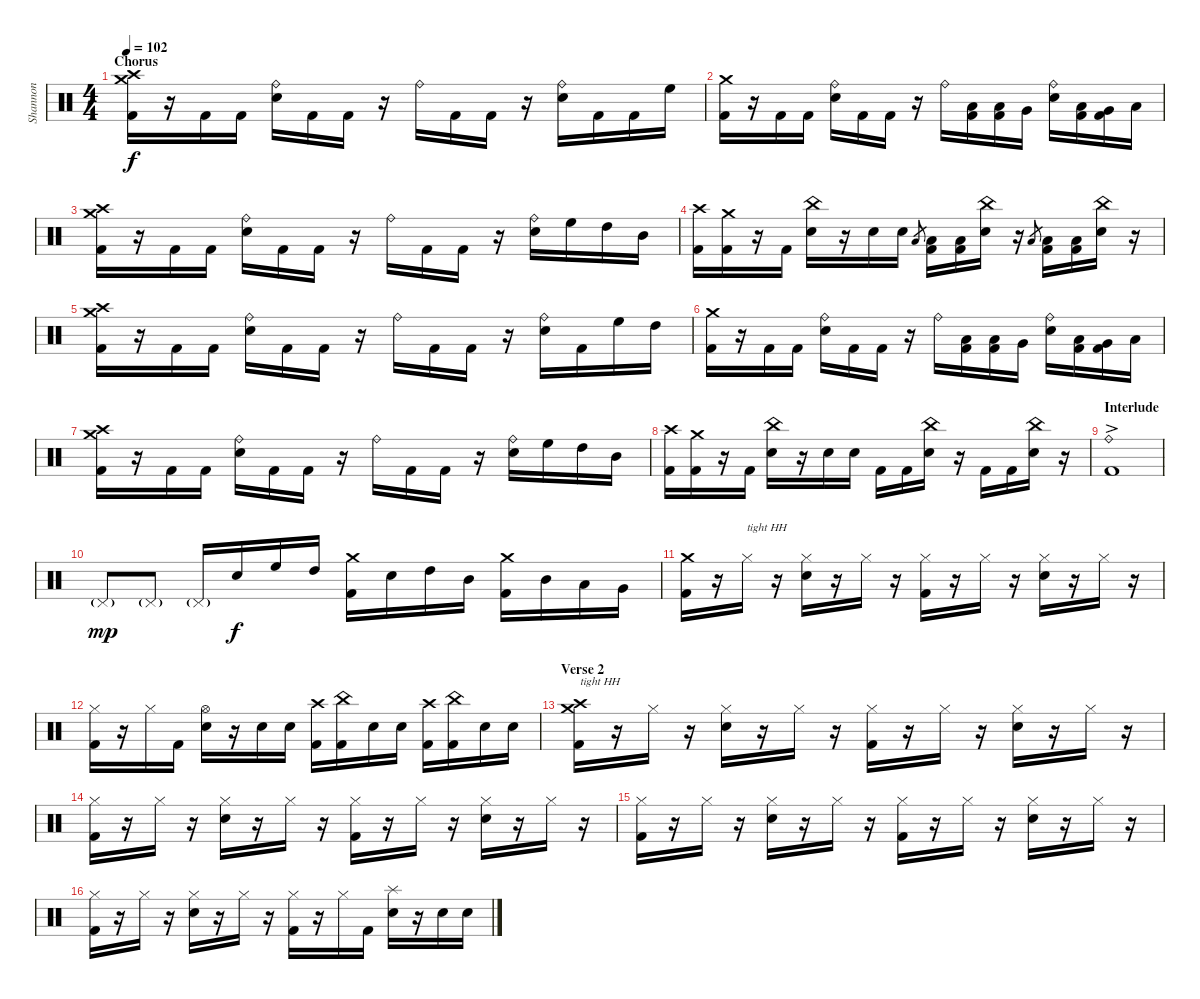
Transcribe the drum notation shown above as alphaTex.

\track ("Shannon" "Shannon") {instrument percussion}
\staff {score}
\articulation defaults
\ts (4 4)
\section ("" "Chorus")
\tempo 102
\clef neutral
\ks c
("Crash high (hit)" "Crash medium (hit)" "Kick (hit) 2").16{dy f} r.16 "Kick (hit) 2".16 "Kick (hit) 2".16 ("Ride (bell)" "Electric Snare (hit)").16 "Kick (hit) 2".16 "Kick (hit) 2".16 r.16 "Ride (bell)".16 "Kick (hit) 2".16 "Kick (hit) 2".16 r.16 ("Ride (bell)" "Electric Snare (hit)").16 "Kick (hit) 2".16 "Kick (hit) 2".16 "High Floor Tom (hit)".16 |
("Crash medium (hit)" "Kick (hit) 2").16 r.16 "Kick (hit) 2".16 "Kick (hit) 2".16 ("Ride (bell)" "Electric Snare (hit)").16 "Kick (hit) 2".16 "Kick (hit) 2".16 r.16 "Ride (bell)".16 ("Low Tom (hit)" "Kick (hit) 2").16 ("Low Tom (hit)" "Kick (hit) 2").16 "Very Low Tom (hit)".16 ("Ride (bell)" "Electric Snare (hit)").16 ("Low Tom (hit)" "Kick (hit) 2").16 ("Very Low Tom (hit)" "Kick (hit) 2").16 "Low Floor Tom (hit)".16 |
("Crash high (hit)" "Crash medium (hit)" "Kick (hit) 2").16 r.16 "Kick (hit) 2".16 "Kick (hit) 2".16 ("Ride (bell)" "Electric Snare (hit)").16 "Kick (hit) 2".16 "Kick (hit) 2".16 r.16 "Ride (bell)".16 "Kick (hit) 2".16 "Kick (hit) 2".16 r.16 ("Ride (bell)" "Electric Snare (hit)").16 "High Floor Tom (hit)".16 "High Tom (hit)".16 "Mid Tom (hit)".16 |
("Crash high (hit)" "Kick (hit) 2").16 ("Crash medium (hit)" "Kick (hit) 2").16 r.16 "Kick (hit) 2".16 ("China (hit)" "Electric Snare (hit)").16 r.16 "Electric Snare (hit)".16 "Electric Snare (hit)".16 "Low Tom (hit)".8{gr} ("Low Tom (hit)" "Kick (hit) 2").16 ("Low Tom (hit)" "Kick (hit) 2").16 ("China (hit)" "Electric Snare (hit)").16 r.16 "Low Tom (hit)".8{gr} ("Low Tom (hit)" "Kick (hit) 2").16 ("Low Tom (hit)" "Kick (hit) 2").16 ("China (hit)" "Electric Snare (hit)").16 r.16 |
("Crash high (hit)" "Crash medium (hit)" "Kick (hit) 2").16 r.16 "Kick (hit) 2".16 "Kick (hit) 2".16 ("Ride (bell)" "Electric Snare (hit)").16 "Kick (hit) 2".16 "Kick (hit) 2".16 r.16 "Ride (bell)".16 "Kick (hit) 2".16 "Kick (hit) 2".16 r.16 ("Ride (bell)" "Electric Snare (hit)").16 "Kick (hit) 2".16 "High Floor Tom (hit)".16 "High Tom (hit)".16 |
("Crash medium (hit)" "Kick (hit) 2").16 r.16 "Kick (hit) 2".16 "Kick (hit) 2".16 ("Ride (bell)" "Electric Snare (hit)").16 "Kick (hit) 2".16 "Kick (hit) 2".16 r.16 "Ride (bell)".16 ("Low Tom (hit)" "Kick (hit) 2").16 ("Low Tom (hit)" "Kick (hit) 2").16 "Very Low Tom (hit)".16 ("Ride (bell)" "Electric Snare (hit)").16 ("Low Tom (hit)" "Kick (hit) 2").16 ("Very Low Tom (hit)" "Kick (hit) 2").16 "Low Floor Tom (hit)".16 |
("Crash high (hit)" "Crash medium (hit)" "Kick (hit) 2").16 r.16 "Kick (hit) 2".16 "Kick (hit) 2".16 ("Ride (bell)" "Electric Snare (hit)").16 "Kick (hit) 2".16 "Kick (hit) 2".16 r.16 "Ride (bell)".16 "Kick (hit) 2".16 "Kick (hit) 2".16 r.16 ("Ride (bell)" "Electric Snare (hit)").16 "High Floor Tom (hit)".16 "High Tom (hit)".16 "Mid Tom (hit)".16 |
("Crash high (hit)" "Kick (hit) 2").16 ("Crash medium (hit)" "Kick (hit) 2").16 r.16 "Kick (hit) 2".16 ("China (hit)" "Electric Snare (hit)").16 r.16 "Electric Snare (hit)".16 "Electric Snare (hit)".16 "Kick (hit) 2".16 "Kick (hit) 2".16 ("China (hit)" "Electric Snare (hit)").16 r.16 "Kick (hit) 2".16 "Kick (hit) 2".16 ("China (hit)" "Electric Snare (hit)").16 r.16 |
\section ("" "Interlude")
("Ride (bell)"{ac} "Kick (hit) 2").1 |
"Pedal Hi-Hat (hit)"{g}.8{dy mp} "Pedal Hi-Hat (hit)"{g}.8 "Pedal Hi-Hat (hit)"{g}.16 "Electric Snare (hit)".16{dy f} "High Floor Tom (hit)".16 "High Tom (hit)".16 ("Crash medium (hit)" "Kick (hit) 2").16 "Electric Snare (hit)".16 "High Tom (hit)".16 "Mid Tom (hit)".16 ("Crash medium (hit)" "Kick (hit) 2").16 "Mid Tom (hit)".16 "Low Tom (hit)".16 "Very Low Tom (hit)".16 |
("Crash medium (hit)" "Kick (hit) 2").16 r.16 "Hi-Hat (closed)".16{txt "tight HH"} r.16 ("Hi-Hat (closed)" "Electric Snare (hit)").16 r.16 "Hi-Hat (closed)".16 r.16 ("Hi-Hat (closed)" "Kick (hit) 2").16 r.16 "Hi-Hat (closed)".16 r.16 ("Hi-Hat (closed)" "Electric Snare (hit)").16 r.16 "Hi-Hat (closed)".16 r.16 |
("Hi-Hat (closed)" "Kick (hit) 2").16 r.16 "Hi-Hat (closed)".16 "Kick (hit) 2".16 ("Hi-Hat (open)" "Electric Snare (hit)").16 r.16 "Electric Snare (hit)".16 "Electric Snare (hit)".16 ("Crash high (hit)" "Kick (hit) 2").16 ("China (hit)" "Kick (hit) 2").16 "Electric Snare (hit)".16 "Electric Snare (hit)".16 ("Crash high (hit)" "Kick (hit) 2").16 ("China (hit)" "Kick (hit) 2").16 "Electric Snare (hit)".16 "Electric Snare (hit)".16 |
\section ("" "Verse 2")
("Crash high (hit)" "Crash medium (hit)" "Kick (hit) 2").16{txt "tight HH"} r.16 "Hi-Hat (closed)".16 r.16 ("Hi-Hat (closed)" "Electric Snare (hit)").16 r.16 "Hi-Hat (closed)".16 r.16 ("Hi-Hat (closed)" "Kick (hit) 2").16 r.16 "Hi-Hat (closed)".16 r.16 ("Hi-Hat (closed)" "Electric Snare (hit)").16 r.16 "Hi-Hat (closed)".16 r.16 |
("Hi-Hat (closed)" "Kick (hit) 2").16 r.16 "Hi-Hat (closed)".16 r.16 ("Hi-Hat (closed)" "Electric Snare (hit)").16 r.16 "Hi-Hat (closed)".16 r.16 ("Hi-Hat (closed)" "Kick (hit) 2").16 r.16 "Hi-Hat (closed)".16 r.16 ("Hi-Hat (closed)" "Electric Snare (hit)").16 r.16 "Hi-Hat (closed)".16 r.16 |
("Hi-Hat (closed)" "Kick (hit) 2").16 r.16 "Hi-Hat (closed)".16 r.16 ("Hi-Hat (closed)" "Electric Snare (hit)").16 r.16 "Hi-Hat (closed)".16 r.16 ("Hi-Hat (closed)" "Kick (hit) 2").16 r.16 "Hi-Hat (closed)".16 r.16 ("Hi-Hat (closed)" "Electric Snare (hit)").16 r.16 "Hi-Hat (closed)".16 r.16 |
("Hi-Hat (closed)" "Kick (hit) 2").16 r.16 "Hi-Hat (closed)".16 r.16 ("Hi-Hat (closed)" "Electric Snare (hit)").16 r.16 "Hi-Hat (closed)".16 r.16 ("Hi-Hat (closed)" "Kick (hit) 2").16 r.16 "Hi-Hat (closed)".16 "Kick (hit) 2".16 ("Splash (hit)" "Electric Snare (hit)").16 r.16 "Electric Snare (hit)".16 "Electric Snare (hit)".16
